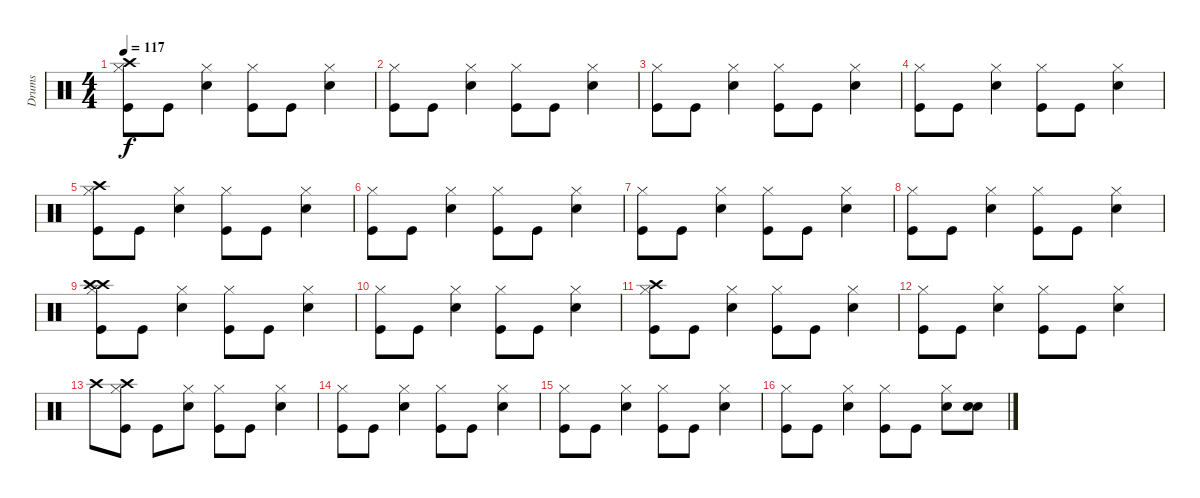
\track ("Drums" "Drums") {instrument percussion}
\staff {score}
\articulation defaults
\ts (4 4)
\tempo 117
\clef neutral
\ks c
("Crash high (hit)" "Kick (hit)" "Hi-Hat (closed)").8{dy f} "Kick (hit)".8 ("Electric Snare (hit)" "Hi-Hat (closed)").4 ("Kick (hit)" "Hi-Hat (closed)").8 "Kick (hit)".8 ("Electric Snare (hit)" "Hi-Hat (closed)").4 |
("Kick (hit)" "Hi-Hat (closed)").8 "Kick (hit)".8 ("Electric Snare (hit)" "Hi-Hat (closed)").4 ("Kick (hit)" "Hi-Hat (closed)").8 "Kick (hit)".8 ("Electric Snare (hit)" "Hi-Hat (closed)").4 |
("Kick (hit)" "Hi-Hat (closed)").8 "Kick (hit)".8 ("Electric Snare (hit)" "Hi-Hat (closed)").4 ("Kick (hit)" "Hi-Hat (closed)").8 "Kick (hit)".8 ("Electric Snare (hit)" "Hi-Hat (closed)").4 |
("Kick (hit)" "Hi-Hat (closed)").8 "Kick (hit)".8 ("Electric Snare (hit)" "Hi-Hat (closed)").4 ("Kick (hit)" "Hi-Hat (closed)").8 "Kick (hit)".8 ("Electric Snare (hit)" "Hi-Hat (closed)").4 |
("Crash high (hit)" "Kick (hit)" "Hi-Hat (closed)").8 "Kick (hit)".8 ("Electric Snare (hit)" "Hi-Hat (closed)").4 ("Kick (hit)" "Hi-Hat (closed)").8 "Kick (hit)".8 ("Electric Snare (hit)" "Hi-Hat (closed)").4 |
("Kick (hit)" "Hi-Hat (closed)").8 "Kick (hit)".8 ("Electric Snare (hit)" "Hi-Hat (closed)").4 ("Kick (hit)" "Hi-Hat (closed)").8 "Kick (hit)".8 ("Electric Snare (hit)" "Hi-Hat (closed)").4 |
("Kick (hit)" "Hi-Hat (closed)").8 "Kick (hit)".8 ("Electric Snare (hit)" "Hi-Hat (closed)").4 ("Kick (hit)" "Hi-Hat (closed)").8 "Kick (hit)".8 ("Electric Snare (hit)" "Hi-Hat (closed)").4 |
("Kick (hit)" "Hi-Hat (closed)").8 "Kick (hit)".8 ("Electric Snare (hit)" "Hi-Hat (closed)").4 ("Kick (hit)" "Hi-Hat (closed)").8 "Kick (hit)".8 ("Electric Snare (hit)" "Hi-Hat (closed)").4 |
("Crash high (hit)" "Crash high (hit)" "Kick (hit)" "Hi-Hat (closed)").8 "Kick (hit)".8 ("Electric Snare (hit)" "Hi-Hat (closed)").4 ("Kick (hit)" "Hi-Hat (closed)").8 "Kick (hit)".8 ("Electric Snare (hit)" "Hi-Hat (closed)").4 |
("Kick (hit)" "Hi-Hat (closed)").8 "Kick (hit)".8 ("Electric Snare (hit)" "Hi-Hat (closed)").4 ("Kick (hit)" "Hi-Hat (closed)").8 "Kick (hit)".8 ("Electric Snare (hit)" "Hi-Hat (closed)").4 |
("Crash high (hit)" "Kick (hit)" "Hi-Hat (closed)").8 "Kick (hit)".8 ("Electric Snare (hit)" "Hi-Hat (closed)").4 ("Kick (hit)" "Hi-Hat (closed)").8 "Kick (hit)".8 ("Electric Snare (hit)" "Hi-Hat (closed)").4 |
("Kick (hit)" "Hi-Hat (closed)").8 "Kick (hit)".8 ("Electric Snare (hit)" "Hi-Hat (closed)").4 ("Kick (hit)" "Hi-Hat (closed)").8 "Kick (hit)".8 ("Electric Snare (hit)" "Hi-Hat (closed)").4 |
"Crash high (hit)".8 ("Crash high (hit)" "Kick (hit)" "Hi-Hat (closed)").8 "Kick (hit)".8 ("Electric Snare (hit)" "Hi-Hat (closed)").8 ("Kick (hit)" "Hi-Hat (closed)").8 "Kick (hit)".8 ("Electric Snare (hit)" "Hi-Hat (closed)").4 |
("Kick (hit)" "Hi-Hat (closed)").8 "Kick (hit)".8 ("Electric Snare (hit)" "Hi-Hat (closed)").4 ("Kick (hit)" "Hi-Hat (closed)").8 "Kick (hit)".8 ("Electric Snare (hit)" "Hi-Hat (closed)").4 |
("Kick (hit)" "Hi-Hat (closed)").8 "Kick (hit)".8 ("Electric Snare (hit)" "Hi-Hat (closed)").4 ("Kick (hit)" "Hi-Hat (closed)").8 "Kick (hit)".8 ("Electric Snare (hit)" "Hi-Hat (closed)").4 |
("Kick (hit)" "Hi-Hat (closed)").8 "Kick (hit)".8 ("Electric Snare (hit)" "Hi-Hat (closed)").4 ("Kick (hit)" "Hi-Hat (closed)").8 "Kick (hit)".8 ("Electric Snare (hit)" "Hi-Hat (closed)").8 ("Electric Snare (hit)" "Electric Snare (hit)").8
